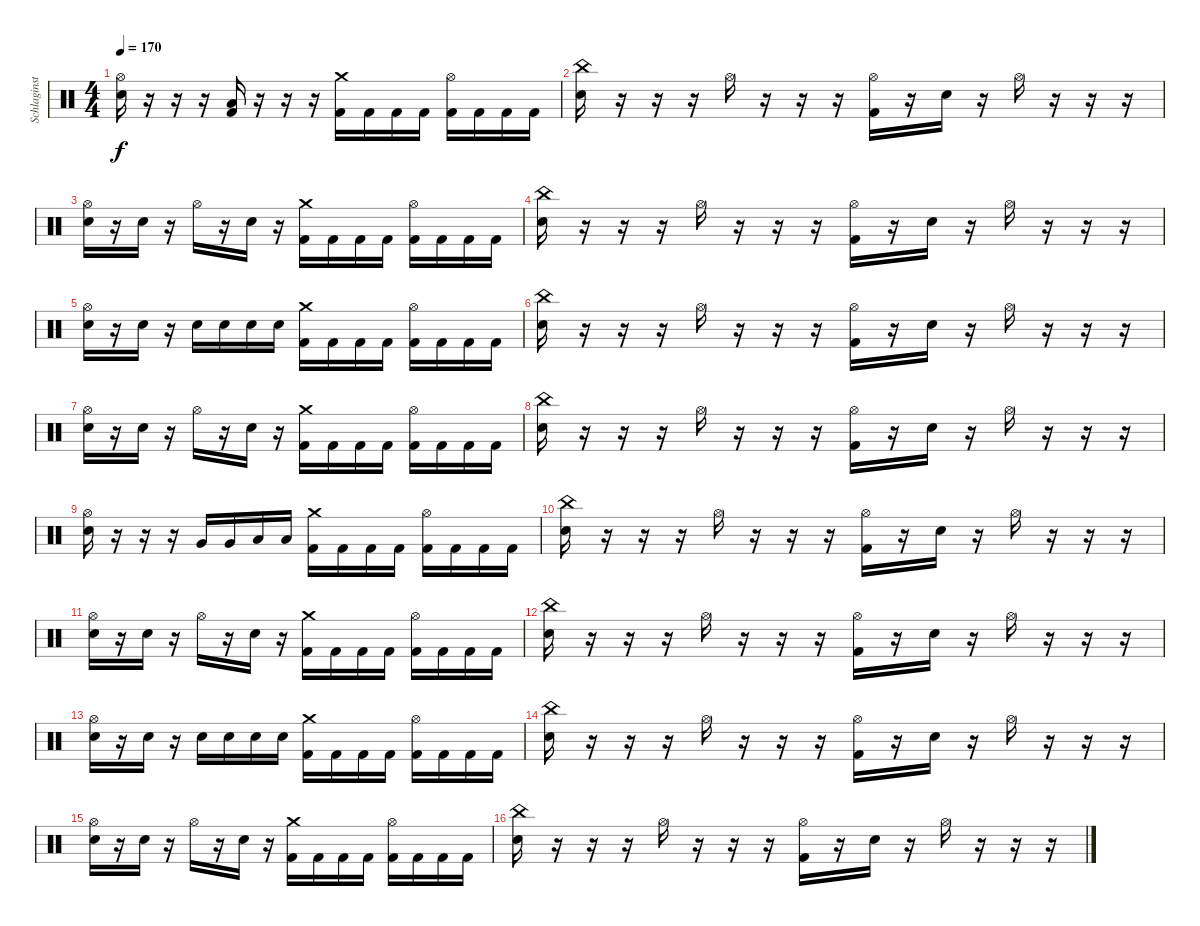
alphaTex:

\track ("Schlaginstrumente - Auswahl" "Schlaginst") {instrument percussion}
\staff {score}
\articulation defaults
\ts (4 4)
\tempo 170
\clef neutral
\ks c
("Electric Snare (hit)" "Hi-Hat (open)").16{dy f} r.16 r.16 r.16 ("Kick (hit) 2" "Low Floor Tom (hit)").16 r.16 r.16 r.16 ("Kick (hit) 2" "Crash medium (hit)").16 "Kick (hit) 2".16 "Kick (hit) 2".16 "Kick (hit) 2".16 ("Kick (hit) 2" "Hi-Hat (open)").16 "Kick (hit) 2".16 "Kick (hit) 2".16 "Kick (hit) 2".16 |
("Electric Snare (hit)" "China (hit)").16 r.16 r.16 r.16 "Hi-Hat (open)".16 r.16 r.16 r.16 ("Kick (hit) 2" "Hi-Hat (open)").16 r.16 "Electric Snare (hit)".16 r.16 "Hi-Hat (open)".16 r.16 r.16 r.16 |
("Electric Snare (hit)" "Hi-Hat (open)").16 r.16 "Electric Snare (hit)".16 r.16 "Hi-Hat (open)".16 r.16 "Electric Snare (hit)".16 r.16 ("Kick (hit) 2" "Crash medium (hit)").16 "Kick (hit) 2".16 "Kick (hit) 2".16 "Kick (hit) 2".16 ("Kick (hit) 2" "Hi-Hat (open)").16 "Kick (hit) 2".16 "Kick (hit) 2".16 "Kick (hit) 2".16 |
("Electric Snare (hit)" "China (hit)").16 r.16 r.16 r.16 "Hi-Hat (open)".16 r.16 r.16 r.16 ("Kick (hit) 2" "Hi-Hat (open)").16 r.16 "Electric Snare (hit)".16 r.16 "Hi-Hat (open)".16 r.16 r.16 r.16 |
("Electric Snare (hit)" "Hi-Hat (open)").16 r.16 "Electric Snare (hit)".16 r.16 "Electric Snare (hit)".16 "Electric Snare (hit)".16 "Electric Snare (hit)".16 "Electric Snare (hit)".16 ("Kick (hit) 2" "Crash medium (hit)").16 "Kick (hit) 2".16 "Kick (hit) 2".16 "Kick (hit) 2".16 ("Kick (hit) 2" "Hi-Hat (open)").16 "Kick (hit) 2".16 "Kick (hit) 2".16 "Kick (hit) 2".16 |
("Electric Snare (hit)" "China (hit)").16 r.16 r.16 r.16 "Hi-Hat (open)".16 r.16 r.16 r.16 ("Kick (hit) 2" "Hi-Hat (open)").16 r.16 "Electric Snare (hit)".16 r.16 "Hi-Hat (open)".16 r.16 r.16 r.16 |
("Electric Snare (hit)" "Hi-Hat (open)").16 r.16 "Electric Snare (hit)".16 r.16 "Hi-Hat (open)".16 r.16 "Electric Snare (hit)".16 r.16 ("Kick (hit) 2" "Crash medium (hit)").16 "Kick (hit) 2".16 "Kick (hit) 2".16 "Kick (hit) 2".16 ("Kick (hit) 2" "Hi-Hat (open)").16 "Kick (hit) 2".16 "Kick (hit) 2".16 "Kick (hit) 2".16 |
("Electric Snare (hit)" "China (hit)").16 r.16 r.16 r.16 "Hi-Hat (open)".16 r.16 r.16 r.16 ("Kick (hit) 2" "Hi-Hat (open)").16 r.16 "Electric Snare (hit)".16 r.16 "Hi-Hat (open)".16 r.16 r.16 r.16 |
("Electric Snare (hit)" "Hi-Hat (open)").16 r.16 r.16 r.16 "Very Low Tom (hit)".16 "Very Low Tom (hit)".16 "Low Floor Tom (hit)".16 "Low Floor Tom (hit)".16 ("Kick (hit) 2" "Crash medium (hit)").16 "Kick (hit) 2".16 "Kick (hit) 2".16 "Kick (hit) 2".16 ("Kick (hit) 2" "Hi-Hat (open)").16 "Kick (hit) 2".16 "Kick (hit) 2".16 "Kick (hit) 2".16 |
("Electric Snare (hit)" "China (hit)").16 r.16 r.16 r.16 "Hi-Hat (open)".16 r.16 r.16 r.16 ("Kick (hit) 2" "Hi-Hat (open)").16 r.16 "Electric Snare (hit)".16 r.16 "Hi-Hat (open)".16 r.16 r.16 r.16 |
("Electric Snare (hit)" "Hi-Hat (open)").16 r.16 "Electric Snare (hit)".16 r.16 "Hi-Hat (open)".16 r.16 "Electric Snare (hit)".16 r.16 ("Kick (hit) 2" "Crash medium (hit)").16 "Kick (hit) 2".16 "Kick (hit) 2".16 "Kick (hit) 2".16 ("Kick (hit) 2" "Hi-Hat (open)").16 "Kick (hit) 2".16 "Kick (hit) 2".16 "Kick (hit) 2".16 |
("Electric Snare (hit)" "China (hit)").16 r.16 r.16 r.16 "Hi-Hat (open)".16 r.16 r.16 r.16 ("Kick (hit) 2" "Hi-Hat (open)").16 r.16 "Electric Snare (hit)".16 r.16 "Hi-Hat (open)".16 r.16 r.16 r.16 |
("Electric Snare (hit)" "Hi-Hat (open)").16 r.16 "Electric Snare (hit)".16 r.16 "Electric Snare (hit)".16 "Electric Snare (hit)".16 "Electric Snare (hit)".16 "Electric Snare (hit)".16 ("Kick (hit) 2" "Crash medium (hit)").16 "Kick (hit) 2".16 "Kick (hit) 2".16 "Kick (hit) 2".16 ("Kick (hit) 2" "Hi-Hat (open)").16 "Kick (hit) 2".16 "Kick (hit) 2".16 "Kick (hit) 2".16 |
("Electric Snare (hit)" "China (hit)").16 r.16 r.16 r.16 "Hi-Hat (open)".16 r.16 r.16 r.16 ("Kick (hit) 2" "Hi-Hat (open)").16 r.16 "Electric Snare (hit)".16 r.16 "Hi-Hat (open)".16 r.16 r.16 r.16 |
("Electric Snare (hit)" "Hi-Hat (open)").16 r.16 "Electric Snare (hit)".16 r.16 "Hi-Hat (open)".16 r.16 "Electric Snare (hit)".16 r.16 ("Kick (hit) 2" "Crash medium (hit)").16 "Kick (hit) 2".16 "Kick (hit) 2".16 "Kick (hit) 2".16 ("Kick (hit) 2" "Hi-Hat (open)").16 "Kick (hit) 2".16 "Kick (hit) 2".16 "Kick (hit) 2".16 |
("Electric Snare (hit)" "China (hit)").16 r.16 r.16 r.16 "Hi-Hat (open)".16 r.16 r.16 r.16 ("Kick (hit) 2" "Hi-Hat (open)").16 r.16 "Electric Snare (hit)".16 r.16 "Hi-Hat (open)".16 r.16 r.16 r.16
